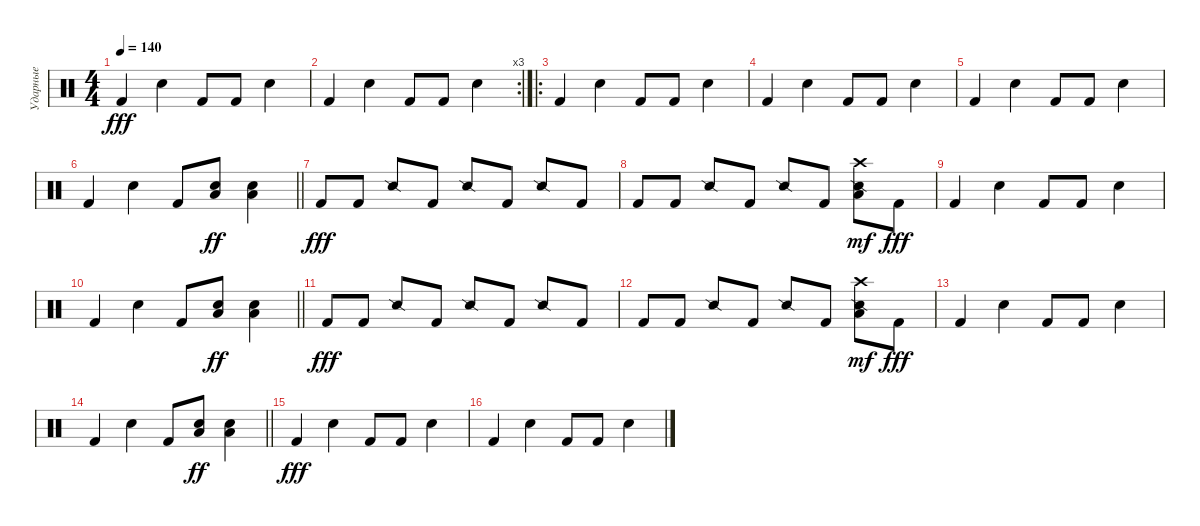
\track ("Ударные" "Ударные") {instrument percussion}
\staff {score}
\articulation defaults
\ts (4 4)
\tempo 140
\clef neutral
\ks c "Kick (hit) 2".4{dy fff} "Electric Snare (hit)".4 "Kick (hit) 2".8 "Kick (hit) 2".8 "Electric Snare (hit)".4
|
\rc 3 "Kick (hit) 2".4 "Electric Snare (hit)".4 "Kick (hit) 2".8 "Kick (hit) 2".8 "Electric Snare (hit)".4
|
\ro "Kick (hit) 2".4 "Electric Snare (hit)".4 "Kick (hit) 2".8 "Kick (hit) 2".8 "Electric Snare (hit)".4
|
"Kick (hit) 2".4 "Electric Snare (hit)".4 "Kick (hit) 2".8 "Kick (hit) 2".8 "Electric Snare (hit)".4 |
"Kick (hit) 2".4 "Electric Snare (hit)".4 "Kick (hit) 2".8 "Kick (hit) 2".8 "Electric Snare (hit)".4 |
\barLineRight lightlight "Kick (hit) 2".4 "Electric Snare (hit)".4 "Kick (hit) 2".8
("Low Tom (hit)" "Electric Snare (hit)").8{dy ff} ("Low Floor Tom (hit)" "Electric Snare (hit)").4 |
"Kick (hit) 2".8{dy fff} "Kick (hit) 2".8 "Snare (side stick) 2".8 "Kick (hit) 2".8 "Snare (side stick) 2".8 "Kick (hit) 2".8 "Snare (side stick) 2".8 "Kick (hit) 2".8 |
"Kick (hit) 2".8 "Kick (hit) 2".8 "Snare (side stick) 2".8 "Kick (hit) 2".8 "Snare (side stick) 2".8 "Kick (hit) 2".8 ("Snare (side stick) 2" "Low Tom (hit)" "Crash high (hit)").8{dy mf} "Kick (hit) 2".8{dy fff} |
"Kick (hit) 2".4 "Electric Snare (hit)".4 "Kick (hit) 2".8 "Kick (hit) 2".8 "Electric Snare (hit)".4 |
\barLineRight lightlight "Kick (hit) 2".4 "Electric Snare (hit)".4 "Kick (hit) 2".8
("Low Tom (hit)" "Electric Snare (hit)").8{dy ff} ("Low Floor Tom (hit)" "Electric Snare (hit)").4 |
"Kick (hit) 2".8{dy fff} "Kick (hit) 2".8 "Snare (side stick) 2".8 "Kick (hit) 2".8 "Snare (side stick) 2".8 "Kick (hit) 2".8 "Snare (side stick) 2".8 "Kick (hit) 2".8 |
"Kick (hit) 2".8 "Kick (hit) 2".8 "Snare (side stick) 2".8 "Kick (hit) 2".8 "Snare (side stick) 2".8 "Kick (hit) 2".8 ("Snare (side stick) 2" "Low Tom (hit)" "Crash high (hit)").8{dy mf} "Kick (hit) 2".8{dy fff} |
"Kick (hit) 2".4 "Electric Snare (hit)".4 "Kick (hit) 2".8 "Kick (hit) 2".8 "Electric Snare (hit)".4 |
\barLineRight lightlight "Kick (hit) 2".4 "Electric Snare (hit)".4 "Kick (hit) 2".8
("Low Tom (hit)" "Electric Snare (hit)").8{dy ff} ("Low Floor Tom (hit)" "Electric Snare (hit)").4 |
"Kick (hit) 2".4{dy fff} "Electric Snare (hit)".4 "Kick (hit) 2".8 "Kick (hit) 2".8 "Electric Snare (hit)".4 |
"Kick (hit) 2".4 "Electric Snare (hit)".4 "Kick (hit) 2".8 "Kick (hit) 2".8 "Electric Snare (hit)".4
